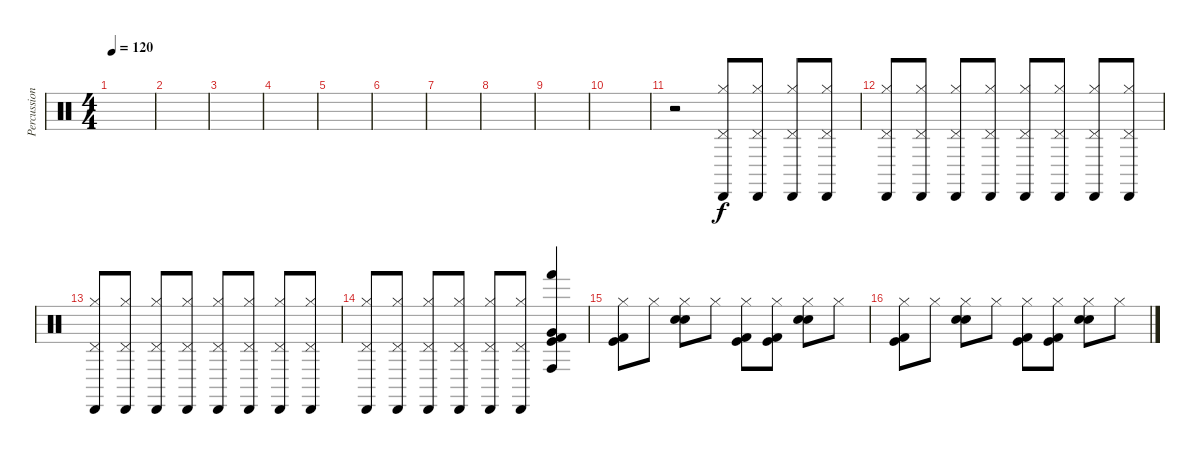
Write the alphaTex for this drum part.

\track ("Percussions" "Percussion") {instrument percussion}
\staff {score}
\articulation defaults
\ts (4 4)
\tempo 120
\clef neutral
\ks c
|
|
|
|
|
|
|
|
|
|
r.2 ("Hi-Hat (closed)" "Pedal Hi-Hat (hit)" "Cabasa (hit)").8 ("Hi-Hat (closed)" "Pedal Hi-Hat (hit)" "Cabasa (hit)").8 ("Hi-Hat (closed)" "Pedal Hi-Hat (hit)" "Cabasa (hit)").8 ("Hi-Hat (closed)" "Pedal Hi-Hat (hit)" "Cabasa (hit)").8 |
("Hi-Hat (closed)" "Pedal Hi-Hat (hit)" "Cabasa (hit)").8 ("Hi-Hat (closed)" "Pedal Hi-Hat (hit)" "Cabasa (hit)").8 ("Hi-Hat (closed)" "Pedal Hi-Hat (hit)" "Cabasa (hit)").8 ("Hi-Hat (closed)" "Pedal Hi-Hat (hit)" "Cabasa (hit)").8 ("Hi-Hat (closed)" "Pedal Hi-Hat (hit)" "Cabasa (hit)").8 ("Hi-Hat (closed)" "Pedal Hi-Hat (hit)" "Cabasa (hit)").8 ("Hi-Hat (closed)" "Pedal Hi-Hat (hit)" "Cabasa (hit)").8 ("Hi-Hat (closed)" "Pedal Hi-Hat (hit)" "Cabasa (hit)").8 |
("Hi-Hat (closed)" "Pedal Hi-Hat (hit)" "Cabasa (hit)").8 ("Hi-Hat (closed)" "Pedal Hi-Hat (hit)" "Cabasa (hit)").8 ("Hi-Hat (closed)" "Pedal Hi-Hat (hit)" "Cabasa (hit)").8 ("Hi-Hat (closed)" "Pedal Hi-Hat (hit)" "Cabasa (hit)").8 ("Hi-Hat (closed)" "Pedal Hi-Hat (hit)" "Cabasa (hit)").8 ("Hi-Hat (closed)" "Pedal Hi-Hat (hit)" "Cabasa (hit)").8 ("Hi-Hat (closed)" "Pedal Hi-Hat (hit)" "Cabasa (hit)").8 ("Hi-Hat (closed)" "Pedal Hi-Hat (hit)" "Cabasa (hit)").8 |
("Hi-Hat (closed)" "Pedal Hi-Hat (hit)" "Cabasa (hit)").8 ("Hi-Hat (closed)" "Pedal Hi-Hat (hit)" "Cabasa (hit)").8 ("Hi-Hat (closed)" "Pedal Hi-Hat (hit)" "Cabasa (hit)").8 ("Hi-Hat (closed)" "Pedal Hi-Hat (hit)" "Cabasa (hit)").8 ("Hi-Hat (closed)" "Pedal Hi-Hat (hit)" "Cabasa (hit)").8 ("Hi-Hat (closed)" "Pedal Hi-Hat (hit)" "Cabasa (hit)").8 ("Conga high (hit)" "Hand (hit)" "Very Low Tom (hit)" "Kick (hit)" "Kick (hit) 2").4 |
("Hi-Hat (closed)" "Kick (hit)" "Kick (hit) 2").8 "Hi-Hat (closed)".8 ("Hi-Hat (closed)" "Snare (hit) 2" "Electric Snare (hit)").8 "Hi-Hat (closed)".8 ("Hi-Hat (closed)" "Kick (hit)" "Kick (hit) 2").8 ("Hi-Hat (closed)" "Kick (hit)" "Kick (hit) 2").8 ("Hi-Hat (closed)" "Snare (hit) 2" "Electric Snare (hit)").8 "Hi-Hat (closed)".8 |
("Hi-Hat (closed)" "Kick (hit)" "Kick (hit) 2").8 "Hi-Hat (closed)".8 ("Hi-Hat (closed)" "Snare (hit) 2" "Electric Snare (hit)").8 "Hi-Hat (closed)".8 ("Hi-Hat (closed)" "Kick (hit)" "Kick (hit) 2").8 ("Hi-Hat (closed)" "Kick (hit)" "Kick (hit) 2").8 ("Hi-Hat (closed)" "Snare (hit) 2" "Electric Snare (hit)").8 "Hi-Hat (closed)".8
